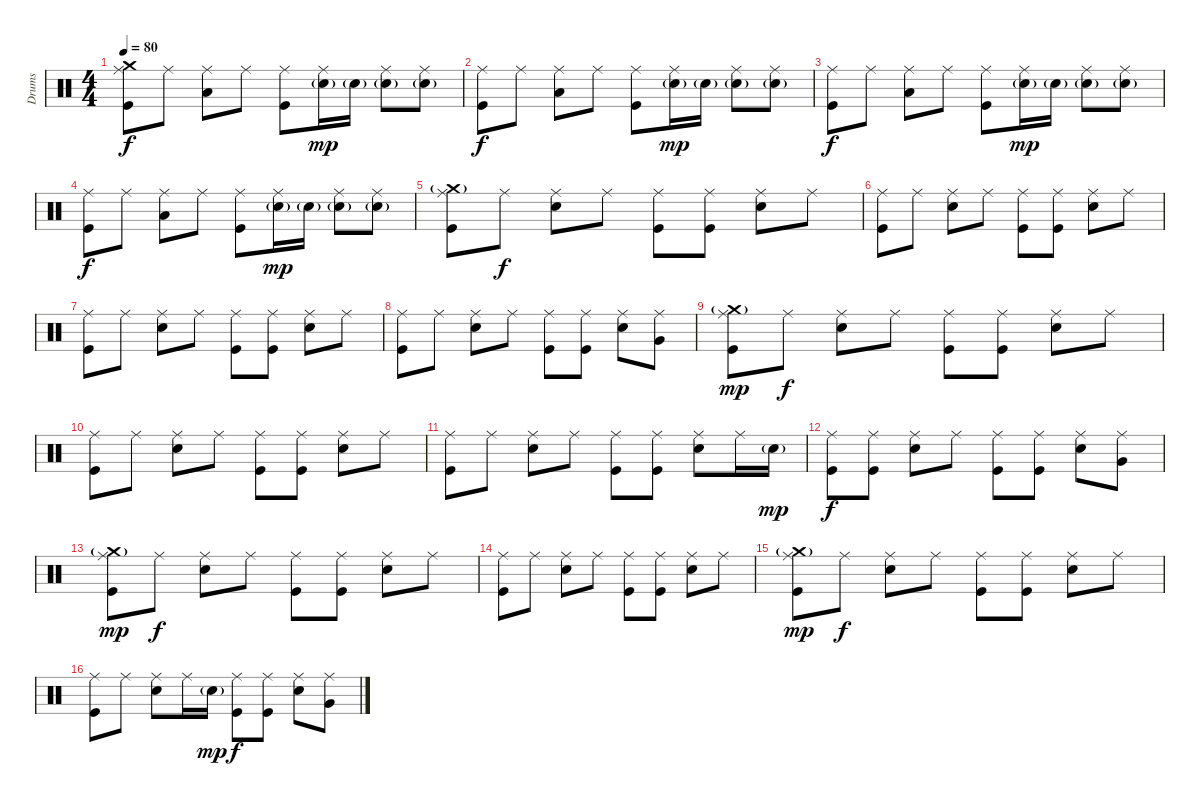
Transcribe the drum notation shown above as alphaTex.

\track ("Drums" "Drums") {instrument percussion}
\staff {score}
\articulation defaults
\ts (4 4)
\tempo 80
\clef neutral
\ks c
("Ride (middle)" "Crash medium (hit)" "Kick (hit)").8{dy f} "Ride (middle)".8 ("Ride (middle)" "Low Tom (hit)").8 "Ride (middle)".8 ("Ride (middle)" "Kick (hit)").8 ("Ride (middle)" "Snare (hit) 2"{g}).16{dy mp} "Snare (hit) 2"{g}.16 ("Ride (middle)" "Snare (hit) 2"{g}).8 ("Ride (middle)" "Snare (hit) 2"{g}).8 |
("Ride (middle)" "Kick (hit)").8{dy f} "Ride (middle)".8 ("Ride (middle)" "Low Tom (hit)").8 "Ride (middle)".8 ("Ride (middle)" "Kick (hit)").8 ("Ride (middle)" "Snare (hit) 2"{g}).16{dy mp} "Snare (hit) 2"{g}.16 ("Ride (middle)" "Snare (hit) 2"{g}).8 ("Ride (middle)" "Snare (hit) 2"{g}).8 |
("Ride (middle)" "Kick (hit)").8{dy f} "Ride (middle)".8 ("Ride (middle)" "Low Tom (hit)").8 "Ride (middle)".8 ("Ride (middle)" "Kick (hit)").8 ("Ride (middle)" "Snare (hit) 2"{g}).16{dy mp} "Snare (hit) 2"{g}.16 ("Ride (middle)" "Snare (hit) 2"{g}).8 ("Ride (middle)" "Snare (hit) 2"{g}).8 |
("Ride (middle)" "Kick (hit)").8{dy f} "Ride (middle)".8 ("Ride (middle)" "Low Tom (hit)").8 "Ride (middle)".8 ("Ride (middle)" "Kick (hit)").8 ("Ride (middle)" "Snare (hit) 2"{g}).16{dy mp} "Snare (hit) 2"{g}.16 ("Ride (middle)" "Snare (hit) 2"{g}).8 ("Ride (middle)" "Snare (hit) 2"{g}).8 |
\section ("" "")
("Ride (middle)" "Crash medium (hit)"{g} "Kick (hit)").8 "Ride (middle)".8{dy f} ("Ride (middle)" "Snare (hit) 2").8 "Ride (middle)".8 ("Ride (middle)" "Kick (hit)").8 ("Ride (middle)" "Kick (hit)").8 ("Ride (middle)" "Snare (hit) 2").8 "Ride (middle)".8 |
("Ride (middle)" "Kick (hit)").8 "Ride (middle)".8 ("Ride (middle)" "Snare (hit) 2").8 "Ride (middle)".8 ("Ride (middle)" "Kick (hit)").8 ("Ride (middle)" "Kick (hit)").8 ("Ride (middle)" "Snare (hit) 2").8 "Ride (middle)".8 |
("Ride (middle)" "Kick (hit)").8 "Ride (middle)".8 ("Ride (middle)" "Snare (hit) 2").8 "Ride (middle)".8 ("Ride (middle)" "Kick (hit)").8 ("Ride (middle)" "Kick (hit)").8 ("Ride (middle)" "Snare (hit) 2").8 "Ride (middle)".8 |
("Ride (middle)" "Kick (hit)").8 "Ride (middle)".8 ("Ride (middle)" "Snare (hit) 2").8 "Ride (middle)".8 ("Ride (middle)" "Kick (hit)").8 ("Ride (middle)" "Kick (hit)").8 ("Ride (middle)" "Snare (hit) 2").8 ("Ride (middle)" "Very Low Tom (hit)").8 |
("Ride (middle)" "Crash medium (hit)"{g} "Kick (hit)").8{dy mp} "Ride (middle)".8{dy f} ("Ride (middle)" "Snare (hit) 2").8 "Ride (middle)".8 ("Ride (middle)" "Kick (hit)").8 ("Ride (middle)" "Kick (hit)").8 ("Ride (middle)" "Snare (hit) 2").8 "Ride (middle)".8 |
("Ride (middle)" "Kick (hit)").8 "Ride (middle)".8 ("Ride (middle)" "Snare (hit) 2").8 "Ride (middle)".8 ("Ride (middle)" "Kick (hit)").8 ("Ride (middle)" "Kick (hit)").8 ("Ride (middle)" "Snare (hit) 2").8 "Ride (middle)".8 |
("Ride (middle)" "Kick (hit)").8 "Ride (middle)".8 ("Ride (middle)" "Snare (hit) 2").8 "Ride (middle)".8 ("Ride (middle)" "Kick (hit)").8 ("Ride (middle)" "Kick (hit)").8 ("Ride (middle)" "Snare (hit) 2").8 "Ride (middle)".16 "Snare (hit) 2"{g}.16{dy mp} |
("Ride (middle)" "Kick (hit)").8{dy f} ("Ride (middle)" "Kick (hit)").8 ("Ride (middle)" "Snare (hit) 2").8 "Ride (middle)".8 ("Ride (middle)" "Kick (hit)").8 ("Ride (middle)" "Kick (hit)").8 ("Ride (middle)" "Snare (hit) 2").8 ("Ride (middle)" "Very Low Tom (hit)").8 |
("Ride (middle)" "Crash medium (hit)"{g} "Kick (hit)").8{dy mp} "Ride (middle)".8{dy f} ("Ride (middle)" "Snare (hit) 2").8 "Ride (middle)".8 ("Ride (middle)" "Kick (hit)").8 ("Ride (middle)" "Kick (hit)").8 ("Ride (middle)" "Snare (hit) 2").8 "Ride (middle)".8 |
("Ride (middle)" "Kick (hit)").8 "Ride (middle)".8 ("Ride (middle)" "Snare (hit) 2").8 "Ride (middle)".8 ("Ride (middle)" "Kick (hit)").8 ("Ride (middle)" "Kick (hit)").8 ("Ride (middle)" "Snare (hit) 2").8 "Ride (middle)".8 |
("Ride (middle)" "Crash medium (hit)"{g} "Kick (hit)").8{dy mp} "Ride (middle)".8{dy f} ("Ride (middle)" "Snare (hit) 2").8 "Ride (middle)".8 ("Ride (middle)" "Kick (hit)").8 ("Ride (middle)" "Kick (hit)").8 ("Ride (middle)" "Snare (hit) 2").8 "Ride (middle)".8 |
("Ride (middle)" "Kick (hit)").8 "Ride (middle)".8 ("Ride (middle)" "Snare (hit) 2").8 "Ride (middle)".16 "Snare (hit) 2"{g}.16{dy mp} ("Ride (middle)" "Kick (hit)").8{dy f} ("Ride (middle)" "Kick (hit)").8 ("Ride (middle)" "Snare (hit) 2").8 ("Ride (middle)" "Very Low Tom (hit)").8
